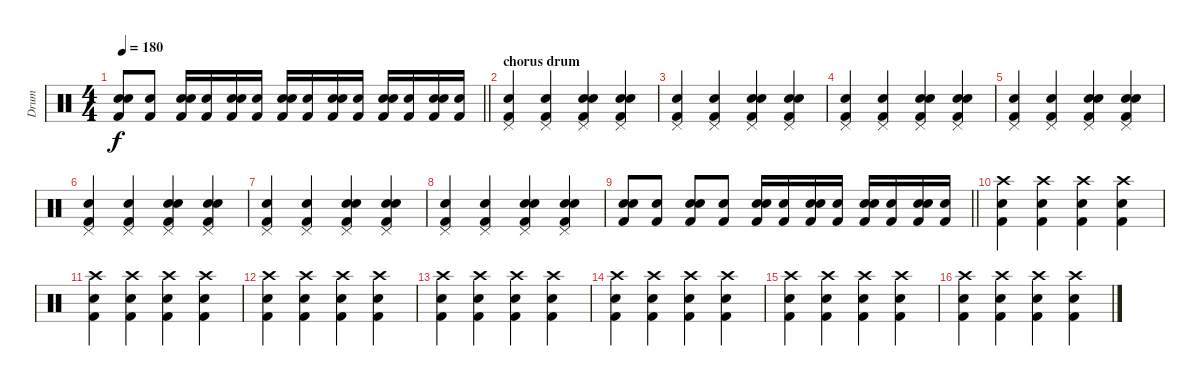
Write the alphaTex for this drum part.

\track ("Drum" "Drum") {instrument percussion}
\staff {score}
\articulation defaults
\ts (4 4)
\tempo 180
\clef neutral
\barLineRight lightlight
\ks c
("Kick (hit) 2" "Electric Snare (hit)" "Snare (hit) 2").8{dy f} ("Kick (hit) 2" "Electric Snare (hit)").8 ("Kick (hit) 2" "Electric Snare (hit)" "Snare (hit) 2").16 ("Kick (hit) 2" "Electric Snare (hit)").16 ("Kick (hit) 2" "Electric Snare (hit)" "Snare (hit) 2").16 ("Kick (hit) 2" "Electric Snare (hit)").16 ("Kick (hit) 2" "Electric Snare (hit)" "Snare (hit) 2").16 ("Kick (hit) 2" "Electric Snare (hit)").16 ("Kick (hit) 2" "Electric Snare (hit)" "Snare (hit) 2").16 ("Kick (hit) 2" "Electric Snare (hit)").16 ("Kick (hit) 2" "Electric Snare (hit)" "Snare (hit) 2").16 ("Kick (hit) 2" "Electric Snare (hit)").16 ("Kick (hit) 2" "Electric Snare (hit)" "Snare (hit) 2").16 ("Kick (hit) 2" "Electric Snare (hit)").16 |
\section ("" "chorus drum")
("Electric Snare (hit)" "Kick (hit) 2" "Pedal Hi-Hat (hit)").4 ("Electric Snare (hit)" "Kick (hit) 2" "Pedal Hi-Hat (hit)").4 ("Electric Snare (hit)" "Kick (hit) 2" "Pedal Hi-Hat (hit)" "Snare (hit) 2").4 ("Electric Snare (hit)" "Kick (hit) 2" "Pedal Hi-Hat (hit)" "Snare (hit) 2").4 |
("Electric Snare (hit)" "Kick (hit) 2" "Pedal Hi-Hat (hit)").4 ("Electric Snare (hit)" "Kick (hit) 2" "Pedal Hi-Hat (hit)").4 ("Electric Snare (hit)" "Kick (hit) 2" "Pedal Hi-Hat (hit)" "Snare (hit) 2").4 ("Electric Snare (hit)" "Kick (hit) 2" "Pedal Hi-Hat (hit)" "Snare (hit) 2").4 |
("Electric Snare (hit)" "Kick (hit) 2" "Pedal Hi-Hat (hit)").4 ("Electric Snare (hit)" "Kick (hit) 2" "Pedal Hi-Hat (hit)").4 ("Electric Snare (hit)" "Kick (hit) 2" "Pedal Hi-Hat (hit)" "Snare (hit) 2").4 ("Electric Snare (hit)" "Kick (hit) 2" "Pedal Hi-Hat (hit)" "Snare (hit) 2").4 |
("Electric Snare (hit)" "Kick (hit) 2" "Pedal Hi-Hat (hit)").4 ("Electric Snare (hit)" "Kick (hit) 2" "Pedal Hi-Hat (hit)").4 ("Electric Snare (hit)" "Kick (hit) 2" "Pedal Hi-Hat (hit)" "Snare (hit) 2").4 ("Electric Snare (hit)" "Kick (hit) 2" "Pedal Hi-Hat (hit)" "Snare (hit) 2").4 |
("Electric Snare (hit)" "Kick (hit) 2" "Pedal Hi-Hat (hit)").4 ("Electric Snare (hit)" "Kick (hit) 2" "Pedal Hi-Hat (hit)").4 ("Electric Snare (hit)" "Kick (hit) 2" "Pedal Hi-Hat (hit)" "Snare (hit) 2").4 ("Electric Snare (hit)" "Kick (hit) 2" "Pedal Hi-Hat (hit)" "Snare (hit) 2").4 |
("Electric Snare (hit)" "Kick (hit) 2" "Pedal Hi-Hat (hit)").4 ("Electric Snare (hit)" "Kick (hit) 2" "Pedal Hi-Hat (hit)").4 ("Electric Snare (hit)" "Kick (hit) 2" "Pedal Hi-Hat (hit)" "Snare (hit) 2").4 ("Electric Snare (hit)" "Kick (hit) 2" "Pedal Hi-Hat (hit)" "Snare (hit) 2").4 |
("Electric Snare (hit)" "Kick (hit) 2" "Pedal Hi-Hat (hit)").4 ("Electric Snare (hit)" "Kick (hit) 2" "Pedal Hi-Hat (hit)").4 ("Electric Snare (hit)" "Kick (hit) 2" "Pedal Hi-Hat (hit)" "Snare (hit) 2").4 ("Electric Snare (hit)" "Kick (hit) 2" "Pedal Hi-Hat (hit)" "Snare (hit) 2").4 |
\barLineRight lightlight
("Kick (hit) 2" "Electric Snare (hit)" "Snare (hit) 2").8 ("Kick (hit) 2" "Electric Snare (hit)").8 ("Kick (hit) 2" "Electric Snare (hit)" "Snare (hit) 2").8 ("Kick (hit) 2" "Electric Snare (hit)").8 ("Kick (hit) 2" "Electric Snare (hit)" "Snare (hit) 2").16 ("Kick (hit) 2" "Electric Snare (hit)").16 ("Kick (hit) 2" "Electric Snare (hit)" "Snare (hit) 2").16 ("Kick (hit) 2" "Electric Snare (hit)").16 ("Kick (hit) 2" "Electric Snare (hit)" "Snare (hit) 2").16 ("Kick (hit) 2" "Electric Snare (hit)").16 ("Kick (hit) 2" "Electric Snare (hit)" "Snare (hit) 2").16 ("Kick (hit) 2" "Electric Snare (hit)").16 |
("Electric Snare (hit)" "Kick (hit) 2" "Crash high (hit)").4 ("Electric Snare (hit)" "Kick (hit) 2" "Crash high (hit)").4 ("Electric Snare (hit)" "Kick (hit) 2" "Crash high (hit)").4 ("Electric Snare (hit)" "Kick (hit) 2" "Crash high (hit)").4 |
("Electric Snare (hit)" "Kick (hit) 2" "Crash high (hit)").4 ("Electric Snare (hit)" "Kick (hit) 2" "Crash high (hit)").4 ("Electric Snare (hit)" "Kick (hit) 2" "Crash high (hit)").4 ("Electric Snare (hit)" "Kick (hit) 2" "Crash high (hit)").4 |
("Electric Snare (hit)" "Kick (hit) 2" "Crash high (hit)").4 ("Electric Snare (hit)" "Kick (hit) 2" "Crash high (hit)").4 ("Electric Snare (hit)" "Kick (hit) 2" "Crash high (hit)").4 ("Electric Snare (hit)" "Kick (hit) 2" "Crash high (hit)").4 |
("Electric Snare (hit)" "Kick (hit) 2" "Crash high (hit)").4 ("Electric Snare (hit)" "Kick (hit) 2" "Crash high (hit)").4 ("Electric Snare (hit)" "Kick (hit) 2" "Crash high (hit)").4 ("Electric Snare (hit)" "Kick (hit) 2" "Crash high (hit)").4 |
("Electric Snare (hit)" "Kick (hit) 2" "Crash high (hit)").4 ("Electric Snare (hit)" "Kick (hit) 2" "Crash high (hit)").4 ("Electric Snare (hit)" "Kick (hit) 2" "Crash high (hit)").4 ("Electric Snare (hit)" "Kick (hit) 2" "Crash high (hit)").4 |
("Electric Snare (hit)" "Kick (hit) 2" "Crash high (hit)").4 ("Electric Snare (hit)" "Kick (hit) 2" "Crash high (hit)").4 ("Electric Snare (hit)" "Kick (hit) 2" "Crash high (hit)").4 ("Electric Snare (hit)" "Kick (hit) 2" "Crash high (hit)").4 |
("Electric Snare (hit)" "Kick (hit) 2" "Crash high (hit)").4 ("Electric Snare (hit)" "Kick (hit) 2" "Crash high (hit)").4 ("Electric Snare (hit)" "Kick (hit) 2" "Crash high (hit)").4 ("Electric Snare (hit)" "Kick (hit) 2" "Crash high (hit)").4
